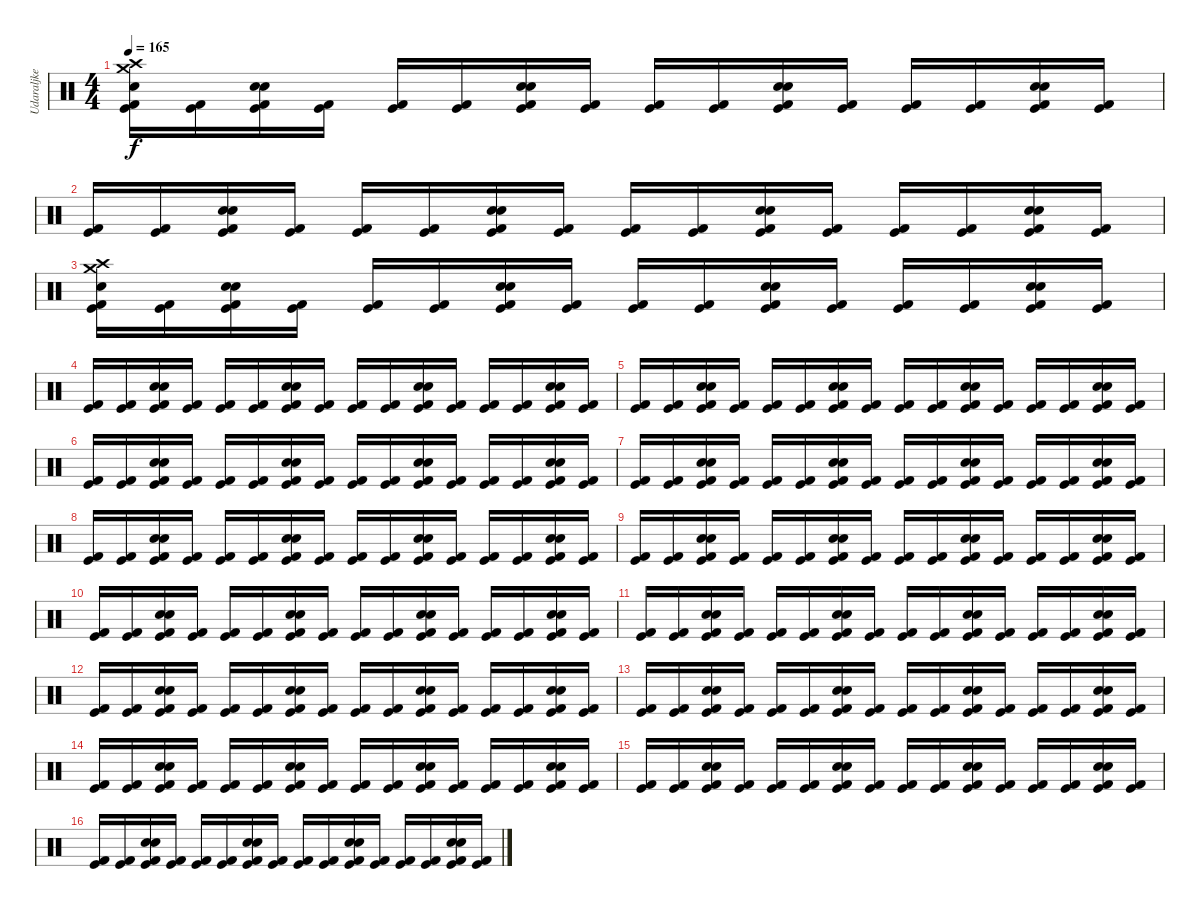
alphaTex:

\track ("Udaraljke" "Udaraljke") {instrument percussion}
\staff {score}
\articulation defaults
\ts (4 4)
\tempo 165
\clef neutral
\ks c
("Crash medium (hit)" "Crash high (hit)" "Snare (hit) 2" "Kick (hit) 2" "Kick (hit)").16{dy f} ("Kick (hit) 2" "Kick (hit)").16 ("Snare (hit) 2" "Snare (hit) 2" "Kick (hit) 2" "Kick (hit)").16 ("Kick (hit) 2" "Kick (hit)").16 ("Kick (hit) 2" "Kick (hit)").16 ("Kick (hit) 2" "Kick (hit)").16 ("Snare (hit) 2" "Snare (hit) 2" "Kick (hit) 2" "Kick (hit)").16 ("Kick (hit) 2" "Kick (hit)").16 ("Kick (hit) 2" "Kick (hit)").16 ("Kick (hit) 2" "Kick (hit)").16 ("Snare (hit) 2" "Snare (hit) 2" "Kick (hit) 2" "Kick (hit)").16 ("Kick (hit) 2" "Kick (hit)").16 ("Kick (hit) 2" "Kick (hit)").16 ("Kick (hit) 2" "Kick (hit)").16 ("Snare (hit) 2" "Snare (hit) 2" "Kick (hit) 2" "Kick (hit)").16 ("Kick (hit) 2" "Kick (hit)").16 |
("Kick (hit) 2" "Kick (hit)").16 ("Kick (hit) 2" "Kick (hit)").16 ("Snare (hit) 2" "Snare (hit) 2" "Kick (hit) 2" "Kick (hit)").16 ("Kick (hit) 2" "Kick (hit)").16 ("Kick (hit) 2" "Kick (hit)").16 ("Kick (hit) 2" "Kick (hit)").16 ("Snare (hit) 2" "Snare (hit) 2" "Kick (hit) 2" "Kick (hit)").16 ("Kick (hit) 2" "Kick (hit)").16 ("Kick (hit) 2" "Kick (hit)").16 ("Kick (hit) 2" "Kick (hit)").16 ("Snare (hit) 2" "Snare (hit) 2" "Kick (hit) 2" "Kick (hit)").16 ("Kick (hit) 2" "Kick (hit)").16 ("Kick (hit) 2" "Kick (hit)").16 ("Kick (hit) 2" "Kick (hit)").16 ("Snare (hit) 2" "Snare (hit) 2" "Kick (hit) 2" "Kick (hit)").16 ("Kick (hit) 2" "Kick (hit)").16 |
("Crash medium (hit)" "Crash high (hit)" "Snare (hit) 2" "Kick (hit) 2" "Kick (hit)").16 ("Kick (hit) 2" "Kick (hit)").16 ("Snare (hit) 2" "Snare (hit) 2" "Kick (hit) 2" "Kick (hit)").16 ("Kick (hit) 2" "Kick (hit)").16 ("Kick (hit) 2" "Kick (hit)").16 ("Kick (hit) 2" "Kick (hit)").16 ("Snare (hit) 2" "Snare (hit) 2" "Kick (hit) 2" "Kick (hit)").16 ("Kick (hit) 2" "Kick (hit)").16 ("Kick (hit) 2" "Kick (hit)").16 ("Kick (hit) 2" "Kick (hit)").16 ("Snare (hit) 2" "Snare (hit) 2" "Kick (hit) 2" "Kick (hit)").16 ("Kick (hit) 2" "Kick (hit)").16 ("Kick (hit) 2" "Kick (hit)").16 ("Kick (hit) 2" "Kick (hit)").16 ("Snare (hit) 2" "Snare (hit) 2" "Kick (hit) 2" "Kick (hit)").16 ("Kick (hit) 2" "Kick (hit)").16 |
("Kick (hit) 2" "Kick (hit)").16 ("Kick (hit) 2" "Kick (hit)").16 ("Snare (hit) 2" "Snare (hit) 2" "Kick (hit) 2" "Kick (hit)").16 ("Kick (hit) 2" "Kick (hit)").16 ("Kick (hit) 2" "Kick (hit)").16 ("Kick (hit) 2" "Kick (hit)").16 ("Snare (hit) 2" "Snare (hit) 2" "Kick (hit) 2" "Kick (hit)").16 ("Kick (hit) 2" "Kick (hit)").16 ("Kick (hit) 2" "Kick (hit)").16 ("Kick (hit) 2" "Kick (hit)").16 ("Snare (hit) 2" "Snare (hit) 2" "Kick (hit) 2" "Kick (hit)").16 ("Kick (hit) 2" "Kick (hit)").16 ("Kick (hit) 2" "Kick (hit)").16 ("Kick (hit) 2" "Kick (hit)").16 ("Snare (hit) 2" "Snare (hit) 2" "Kick (hit) 2" "Kick (hit)").16 ("Kick (hit) 2" "Kick (hit)").16 |
("Kick (hit) 2" "Kick (hit)").16 ("Kick (hit) 2" "Kick (hit)").16 ("Snare (hit) 2" "Snare (hit) 2" "Kick (hit) 2" "Kick (hit)").16 ("Kick (hit) 2" "Kick (hit)").16 ("Kick (hit) 2" "Kick (hit)").16 ("Kick (hit) 2" "Kick (hit)").16 ("Snare (hit) 2" "Snare (hit) 2" "Kick (hit) 2" "Kick (hit)").16 ("Kick (hit) 2" "Kick (hit)").16 ("Kick (hit) 2" "Kick (hit)").16 ("Kick (hit) 2" "Kick (hit)").16 ("Snare (hit) 2" "Snare (hit) 2" "Kick (hit) 2" "Kick (hit)").16 ("Kick (hit) 2" "Kick (hit)").16 ("Kick (hit) 2" "Kick (hit)").16 ("Kick (hit) 2" "Kick (hit)").16 ("Snare (hit) 2" "Snare (hit) 2" "Kick (hit) 2" "Kick (hit)").16 ("Kick (hit) 2" "Kick (hit)").16 |
("Kick (hit) 2" "Kick (hit)").16 ("Kick (hit) 2" "Kick (hit)").16 ("Snare (hit) 2" "Snare (hit) 2" "Kick (hit) 2" "Kick (hit)").16 ("Kick (hit) 2" "Kick (hit)").16 ("Kick (hit) 2" "Kick (hit)").16 ("Kick (hit) 2" "Kick (hit)").16 ("Snare (hit) 2" "Snare (hit) 2" "Kick (hit) 2" "Kick (hit)").16 ("Kick (hit) 2" "Kick (hit)").16 ("Kick (hit) 2" "Kick (hit)").16 ("Kick (hit) 2" "Kick (hit)").16 ("Snare (hit) 2" "Snare (hit) 2" "Kick (hit) 2" "Kick (hit)").16 ("Kick (hit) 2" "Kick (hit)").16 ("Kick (hit) 2" "Kick (hit)").16 ("Kick (hit) 2" "Kick (hit)").16 ("Snare (hit) 2" "Snare (hit) 2" "Kick (hit) 2" "Kick (hit)").16 ("Kick (hit) 2" "Kick (hit)").16 |
("Kick (hit) 2" "Kick (hit)").16 ("Kick (hit) 2" "Kick (hit)").16 ("Snare (hit) 2" "Snare (hit) 2" "Kick (hit) 2" "Kick (hit)").16 ("Kick (hit) 2" "Kick (hit)").16 ("Kick (hit) 2" "Kick (hit)").16 ("Kick (hit) 2" "Kick (hit)").16 ("Snare (hit) 2" "Snare (hit) 2" "Kick (hit) 2" "Kick (hit)").16 ("Kick (hit) 2" "Kick (hit)").16 ("Kick (hit) 2" "Kick (hit)").16 ("Kick (hit) 2" "Kick (hit)").16 ("Snare (hit) 2" "Snare (hit) 2" "Kick (hit) 2" "Kick (hit)").16 ("Kick (hit) 2" "Kick (hit)").16 ("Kick (hit) 2" "Kick (hit)").16 ("Kick (hit) 2" "Kick (hit)").16 ("Snare (hit) 2" "Snare (hit) 2" "Kick (hit) 2" "Kick (hit)").16 ("Kick (hit) 2" "Kick (hit)").16 |
("Kick (hit) 2" "Kick (hit)").16 ("Kick (hit) 2" "Kick (hit)").16 ("Snare (hit) 2" "Snare (hit) 2" "Kick (hit) 2" "Kick (hit)").16 ("Kick (hit) 2" "Kick (hit)").16 ("Kick (hit) 2" "Kick (hit)").16 ("Kick (hit) 2" "Kick (hit)").16 ("Snare (hit) 2" "Snare (hit) 2" "Kick (hit) 2" "Kick (hit)").16 ("Kick (hit) 2" "Kick (hit)").16 ("Kick (hit) 2" "Kick (hit)").16 ("Kick (hit) 2" "Kick (hit)").16 ("Snare (hit) 2" "Snare (hit) 2" "Kick (hit) 2" "Kick (hit)").16 ("Kick (hit) 2" "Kick (hit)").16 ("Kick (hit) 2" "Kick (hit)").16 ("Kick (hit) 2" "Kick (hit)").16 ("Snare (hit) 2" "Snare (hit) 2" "Kick (hit) 2" "Kick (hit)").16 ("Kick (hit) 2" "Kick (hit)").16 |
("Kick (hit) 2" "Kick (hit)").16 ("Kick (hit) 2" "Kick (hit)").16 ("Snare (hit) 2" "Snare (hit) 2" "Kick (hit) 2" "Kick (hit)").16 ("Kick (hit) 2" "Kick (hit)").16 ("Kick (hit) 2" "Kick (hit)").16 ("Kick (hit) 2" "Kick (hit)").16 ("Snare (hit) 2" "Snare (hit) 2" "Kick (hit) 2" "Kick (hit)").16 ("Kick (hit) 2" "Kick (hit)").16 ("Kick (hit) 2" "Kick (hit)").16 ("Kick (hit) 2" "Kick (hit)").16 ("Snare (hit) 2" "Snare (hit) 2" "Kick (hit) 2" "Kick (hit)").16 ("Kick (hit) 2" "Kick (hit)").16 ("Kick (hit) 2" "Kick (hit)").16 ("Kick (hit) 2" "Kick (hit)").16 ("Snare (hit) 2" "Snare (hit) 2" "Kick (hit) 2" "Kick (hit)").16 ("Kick (hit) 2" "Kick (hit)").16 |
("Kick (hit) 2" "Kick (hit)").16 ("Kick (hit) 2" "Kick (hit)").16 ("Snare (hit) 2" "Snare (hit) 2" "Kick (hit) 2" "Kick (hit)").16 ("Kick (hit) 2" "Kick (hit)").16 ("Kick (hit) 2" "Kick (hit)").16 ("Kick (hit) 2" "Kick (hit)").16 ("Snare (hit) 2" "Snare (hit) 2" "Kick (hit) 2" "Kick (hit)").16 ("Kick (hit) 2" "Kick (hit)").16 ("Kick (hit) 2" "Kick (hit)").16 ("Kick (hit) 2" "Kick (hit)").16 ("Snare (hit) 2" "Snare (hit) 2" "Kick (hit) 2" "Kick (hit)").16 ("Kick (hit) 2" "Kick (hit)").16 ("Kick (hit) 2" "Kick (hit)").16 ("Kick (hit) 2" "Kick (hit)").16 ("Snare (hit) 2" "Snare (hit) 2" "Kick (hit) 2" "Kick (hit)").16 ("Kick (hit) 2" "Kick (hit)").16 |
("Kick (hit) 2" "Kick (hit)").16 ("Kick (hit) 2" "Kick (hit)").16 ("Snare (hit) 2" "Snare (hit) 2" "Kick (hit) 2" "Kick (hit)").16 ("Kick (hit) 2" "Kick (hit)").16 ("Kick (hit) 2" "Kick (hit)").16 ("Kick (hit) 2" "Kick (hit)").16 ("Snare (hit) 2" "Snare (hit) 2" "Kick (hit) 2" "Kick (hit)").16 ("Kick (hit) 2" "Kick (hit)").16 ("Kick (hit) 2" "Kick (hit)").16 ("Kick (hit) 2" "Kick (hit)").16 ("Snare (hit) 2" "Snare (hit) 2" "Kick (hit) 2" "Kick (hit)").16 ("Kick (hit) 2" "Kick (hit)").16 ("Kick (hit) 2" "Kick (hit)").16 ("Kick (hit) 2" "Kick (hit)").16 ("Snare (hit) 2" "Snare (hit) 2" "Kick (hit) 2" "Kick (hit)").16 ("Kick (hit) 2" "Kick (hit)").16 |
("Kick (hit) 2" "Kick (hit)").16 ("Kick (hit) 2" "Kick (hit)").16 ("Snare (hit) 2" "Snare (hit) 2" "Kick (hit) 2" "Kick (hit)").16 ("Kick (hit) 2" "Kick (hit)").16 ("Kick (hit) 2" "Kick (hit)").16 ("Kick (hit) 2" "Kick (hit)").16 ("Snare (hit) 2" "Snare (hit) 2" "Kick (hit) 2" "Kick (hit)").16 ("Kick (hit) 2" "Kick (hit)").16 ("Kick (hit) 2" "Kick (hit)").16 ("Kick (hit) 2" "Kick (hit)").16 ("Snare (hit) 2" "Snare (hit) 2" "Kick (hit) 2" "Kick (hit)").16 ("Kick (hit) 2" "Kick (hit)").16 ("Kick (hit) 2" "Kick (hit)").16 ("Kick (hit) 2" "Kick (hit)").16 ("Snare (hit) 2" "Snare (hit) 2" "Kick (hit) 2" "Kick (hit)").16 ("Kick (hit) 2" "Kick (hit)").16 |
("Kick (hit) 2" "Kick (hit)").16 ("Kick (hit) 2" "Kick (hit)").16 ("Snare (hit) 2" "Snare (hit) 2" "Kick (hit) 2" "Kick (hit)").16 ("Kick (hit) 2" "Kick (hit)").16 ("Kick (hit) 2" "Kick (hit)").16 ("Kick (hit) 2" "Kick (hit)").16 ("Snare (hit) 2" "Snare (hit) 2" "Kick (hit) 2" "Kick (hit)").16 ("Kick (hit) 2" "Kick (hit)").16 ("Kick (hit) 2" "Kick (hit)").16 ("Kick (hit) 2" "Kick (hit)").16 ("Snare (hit) 2" "Snare (hit) 2" "Kick (hit) 2" "Kick (hit)").16 ("Kick (hit) 2" "Kick (hit)").16 ("Kick (hit) 2" "Kick (hit)").16 ("Kick (hit) 2" "Kick (hit)").16 ("Snare (hit) 2" "Snare (hit) 2" "Kick (hit) 2" "Kick (hit)").16 ("Kick (hit) 2" "Kick (hit)").16 |
("Kick (hit) 2" "Kick (hit)").16 ("Kick (hit) 2" "Kick (hit)").16 ("Snare (hit) 2" "Snare (hit) 2" "Kick (hit) 2" "Kick (hit)").16 ("Kick (hit) 2" "Kick (hit)").16 ("Kick (hit) 2" "Kick (hit)").16 ("Kick (hit) 2" "Kick (hit)").16 ("Snare (hit) 2" "Snare (hit) 2" "Kick (hit) 2" "Kick (hit)").16 ("Kick (hit) 2" "Kick (hit)").16 ("Kick (hit) 2" "Kick (hit)").16 ("Kick (hit) 2" "Kick (hit)").16 ("Snare (hit) 2" "Snare (hit) 2" "Kick (hit) 2" "Kick (hit)").16 ("Kick (hit) 2" "Kick (hit)").16 ("Kick (hit) 2" "Kick (hit)").16 ("Kick (hit) 2" "Kick (hit)").16 ("Snare (hit) 2" "Snare (hit) 2" "Kick (hit) 2" "Kick (hit)").16 ("Kick (hit) 2" "Kick (hit)").16 |
("Kick (hit) 2" "Kick (hit)").16 ("Kick (hit) 2" "Kick (hit)").16 ("Snare (hit) 2" "Snare (hit) 2" "Kick (hit) 2" "Kick (hit)").16 ("Kick (hit) 2" "Kick (hit)").16 ("Kick (hit) 2" "Kick (hit)").16 ("Kick (hit) 2" "Kick (hit)").16 ("Snare (hit) 2" "Snare (hit) 2" "Kick (hit) 2" "Kick (hit)").16 ("Kick (hit) 2" "Kick (hit)").16 ("Kick (hit) 2" "Kick (hit)").16 ("Kick (hit) 2" "Kick (hit)").16 ("Snare (hit) 2" "Snare (hit) 2" "Kick (hit) 2" "Kick (hit)").16 ("Kick (hit) 2" "Kick (hit)").16 ("Kick (hit) 2" "Kick (hit)").16 ("Kick (hit) 2" "Kick (hit)").16 ("Snare (hit) 2" "Snare (hit) 2" "Kick (hit) 2" "Kick (hit)").16 ("Kick (hit) 2" "Kick (hit)").16 |
("Kick (hit) 2" "Kick (hit)").16 ("Kick (hit) 2" "Kick (hit)").16 ("Snare (hit) 2" "Snare (hit) 2" "Kick (hit) 2" "Kick (hit)").16 ("Kick (hit) 2" "Kick (hit)").16 ("Kick (hit) 2" "Kick (hit)").16 ("Kick (hit) 2" "Kick (hit)").16 ("Snare (hit) 2" "Snare (hit) 2" "Kick (hit) 2" "Kick (hit)").16 ("Kick (hit) 2" "Kick (hit)").16 ("Kick (hit) 2" "Kick (hit)").16 ("Kick (hit) 2" "Kick (hit)").16 ("Snare (hit) 2" "Snare (hit) 2" "Kick (hit) 2" "Kick (hit)").16 ("Kick (hit) 2" "Kick (hit)").16 ("Kick (hit) 2" "Kick (hit)").16 ("Kick (hit) 2" "Kick (hit)").16 ("Snare (hit) 2" "Snare (hit) 2" "Kick (hit) 2" "Kick (hit)").16 ("Kick (hit) 2" "Kick (hit)").16
